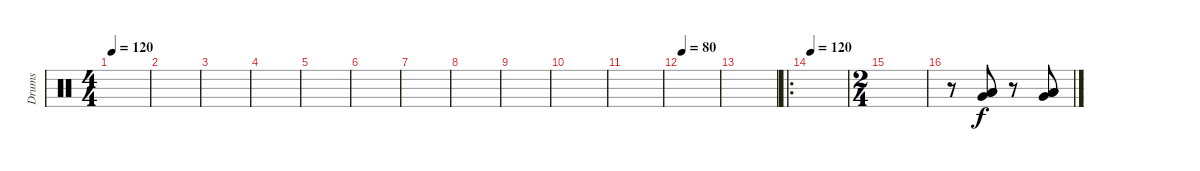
\track ("Drums" "Drums") {instrument percussion}
\staff {score}
\articulation defaults
\ts (4 4)
\tempo 120
\clef neutral
\ks c
|
|
|
|
|
|
|
|
|
|
|
\tempo 80
|
|
\ro
\tempo 120
|
\ts (2 4)
|
r.8 ("Low Tom (hit)" "Very Low Tom (hit)" "Low Floor Tom (hit)").8 r.8 ("Low Tom (hit)" "Very Low Tom (hit)" "Low Floor Tom (hit)").8
